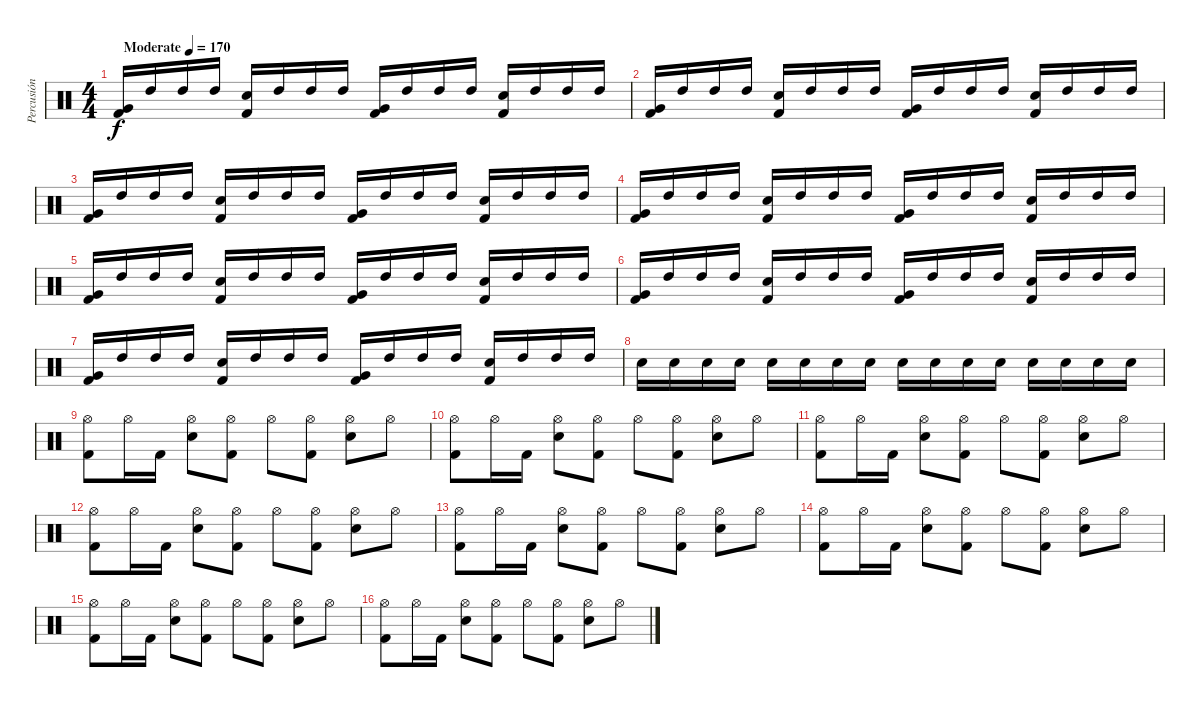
\track ("Percusión" "Percusión") {instrument percussion}
\staff {score}
\articulation defaults
\ts (4 4)
\tempo (170 "Moderate")
\clef neutral
\ks c
("Very Low Tom (hit)" "Kick (hit) 2").16{dy f} "High Tom (hit)".16 "High Tom (hit)".16 "High Tom (hit)".16 ("Snare (hit) 2" "Kick (hit) 2").16 "High Tom (hit)".16 "High Tom (hit)".16 "High Tom (hit)".16 ("Very Low Tom (hit)" "Kick (hit) 2").16 "High Tom (hit)".16 "High Tom (hit)".16 "High Tom (hit)".16 ("Snare (hit) 2" "Kick (hit) 2").16 "High Tom (hit)".16 "High Tom (hit)".16 "High Tom (hit)".16 |
("Very Low Tom (hit)" "Kick (hit) 2").16 "High Tom (hit)".16 "High Tom (hit)".16 "High Tom (hit)".16 ("Snare (hit) 2" "Kick (hit) 2").16 "High Tom (hit)".16 "High Tom (hit)".16 "High Tom (hit)".16 ("Very Low Tom (hit)" "Kick (hit) 2").16 "High Tom (hit)".16 "High Tom (hit)".16 "High Tom (hit)".16 ("Snare (hit) 2" "Kick (hit) 2").16 "High Tom (hit)".16 "High Tom (hit)".16 "High Tom (hit)".16 |
("Very Low Tom (hit)" "Kick (hit) 2").16 "High Tom (hit)".16 "High Tom (hit)".16 "High Tom (hit)".16 ("Snare (hit) 2" "Kick (hit) 2").16 "High Tom (hit)".16 "High Tom (hit)".16 "High Tom (hit)".16 ("Very Low Tom (hit)" "Kick (hit) 2").16 "High Tom (hit)".16 "High Tom (hit)".16 "High Tom (hit)".16 ("Snare (hit) 2" "Kick (hit) 2").16 "High Tom (hit)".16 "High Tom (hit)".16 "High Tom (hit)".16 |
("Very Low Tom (hit)" "Kick (hit) 2").16 "High Tom (hit)".16 "High Tom (hit)".16 "High Tom (hit)".16 ("Snare (hit) 2" "Kick (hit) 2").16 "High Tom (hit)".16 "High Tom (hit)".16 "High Tom (hit)".16 ("Very Low Tom (hit)" "Kick (hit) 2").16 "High Tom (hit)".16 "High Tom (hit)".16 "High Tom (hit)".16 ("Snare (hit) 2" "Kick (hit) 2").16 "High Tom (hit)".16 "High Tom (hit)".16 "High Tom (hit)".16 |
("Very Low Tom (hit)" "Kick (hit) 2").16 "High Tom (hit)".16 "High Tom (hit)".16 "High Tom (hit)".16 ("Snare (hit) 2" "Kick (hit) 2").16 "High Tom (hit)".16 "High Tom (hit)".16 "High Tom (hit)".16 ("Very Low Tom (hit)" "Kick (hit) 2").16 "High Tom (hit)".16 "High Tom (hit)".16 "High Tom (hit)".16 ("Snare (hit) 2" "Kick (hit) 2").16 "High Tom (hit)".16 "High Tom (hit)".16 "High Tom (hit)".16 |
("Very Low Tom (hit)" "Kick (hit) 2").16 "High Tom (hit)".16 "High Tom (hit)".16 "High Tom (hit)".16 ("Snare (hit) 2" "Kick (hit) 2").16 "High Tom (hit)".16 "High Tom (hit)".16 "High Tom (hit)".16 ("Very Low Tom (hit)" "Kick (hit) 2").16 "High Tom (hit)".16 "High Tom (hit)".16 "High Tom (hit)".16 ("Snare (hit) 2" "Kick (hit) 2").16 "High Tom (hit)".16 "High Tom (hit)".16 "High Tom (hit)".16 |
("Very Low Tom (hit)" "Kick (hit) 2").16 "High Tom (hit)".16 "High Tom (hit)".16 "High Tom (hit)".16 ("Snare (hit) 2" "Kick (hit) 2").16 "High Tom (hit)".16 "High Tom (hit)".16 "High Tom (hit)".16 ("Very Low Tom (hit)" "Kick (hit) 2").16 "High Tom (hit)".16 "High Tom (hit)".16 "High Tom (hit)".16 ("Snare (hit) 2" "Kick (hit) 2").16 "High Tom (hit)".16 "High Tom (hit)".16 "High Tom (hit)".16 |
"Snare (hit) 2".16 "Snare (hit) 2".16 "Snare (hit) 2".16 "Snare (hit) 2".16 "Snare (hit) 2".16 "Snare (hit) 2".16 "Snare (hit) 2".16 "Snare (hit) 2".16 "Snare (hit) 2".16 "Snare (hit) 2".16 "Snare (hit) 2".16 "Snare (hit) 2".16 "Snare (hit) 2".16 "Snare (hit) 2".16 "Snare (hit) 2".16 "Snare (hit) 2".16 |
("Hi-Hat (open)" "Kick (hit) 2").8 "Hi-Hat (open)".16 "Kick (hit) 2".16 ("Hi-Hat (open)" "Snare (hit) 2").8 ("Hi-Hat (open)" "Kick (hit) 2").8 "Hi-Hat (open)".8 ("Hi-Hat (open)" "Kick (hit) 2").8 ("Hi-Hat (open)" "Snare (hit) 2").8 "Hi-Hat (open)".8 |
("Hi-Hat (open)" "Kick (hit) 2").8 "Hi-Hat (open)".16 "Kick (hit) 2".16 ("Hi-Hat (open)" "Snare (hit) 2").8 ("Hi-Hat (open)" "Kick (hit) 2").8 "Hi-Hat (open)".8 ("Hi-Hat (open)" "Kick (hit) 2").8 ("Hi-Hat (open)" "Snare (hit) 2").8 "Hi-Hat (open)".8 |
("Hi-Hat (open)" "Kick (hit) 2").8 "Hi-Hat (open)".16 "Kick (hit) 2".16 ("Hi-Hat (open)" "Snare (hit) 2").8 ("Hi-Hat (open)" "Kick (hit) 2").8 "Hi-Hat (open)".8 ("Hi-Hat (open)" "Kick (hit) 2").8 ("Hi-Hat (open)" "Snare (hit) 2").8 "Hi-Hat (open)".8 |
("Hi-Hat (open)" "Kick (hit) 2").8 "Hi-Hat (open)".16 "Kick (hit) 2".16 ("Hi-Hat (open)" "Snare (hit) 2").8 ("Hi-Hat (open)" "Kick (hit) 2").8 "Hi-Hat (open)".8 ("Hi-Hat (open)" "Kick (hit) 2").8 ("Hi-Hat (open)" "Snare (hit) 2").8 "Hi-Hat (open)".8 |
("Hi-Hat (open)" "Kick (hit) 2").8 "Hi-Hat (open)".16 "Kick (hit) 2".16 ("Hi-Hat (open)" "Snare (hit) 2").8 ("Hi-Hat (open)" "Kick (hit) 2").8 "Hi-Hat (open)".8 ("Hi-Hat (open)" "Kick (hit) 2").8 ("Hi-Hat (open)" "Snare (hit) 2").8 "Hi-Hat (open)".8 |
("Hi-Hat (open)" "Kick (hit) 2").8 "Hi-Hat (open)".16 "Kick (hit) 2".16 ("Hi-Hat (open)" "Snare (hit) 2").8 ("Hi-Hat (open)" "Kick (hit) 2").8 "Hi-Hat (open)".8 ("Hi-Hat (open)" "Kick (hit) 2").8 ("Hi-Hat (open)" "Snare (hit) 2").8 "Hi-Hat (open)".8 |
("Hi-Hat (open)" "Kick (hit) 2").8 "Hi-Hat (open)".16 "Kick (hit) 2".16 ("Hi-Hat (open)" "Snare (hit) 2").8 ("Hi-Hat (open)" "Kick (hit) 2").8 "Hi-Hat (open)".8 ("Hi-Hat (open)" "Kick (hit) 2").8 ("Hi-Hat (open)" "Snare (hit) 2").8 "Hi-Hat (open)".8 |
("Hi-Hat (open)" "Kick (hit) 2").8 "Hi-Hat (open)".16 "Kick (hit) 2".16 ("Hi-Hat (open)" "Snare (hit) 2").8 ("Hi-Hat (open)" "Kick (hit) 2").8 "Hi-Hat (open)".8 ("Hi-Hat (open)" "Kick (hit) 2").8 ("Hi-Hat (open)" "Snare (hit) 2").8 "Hi-Hat (open)".8
